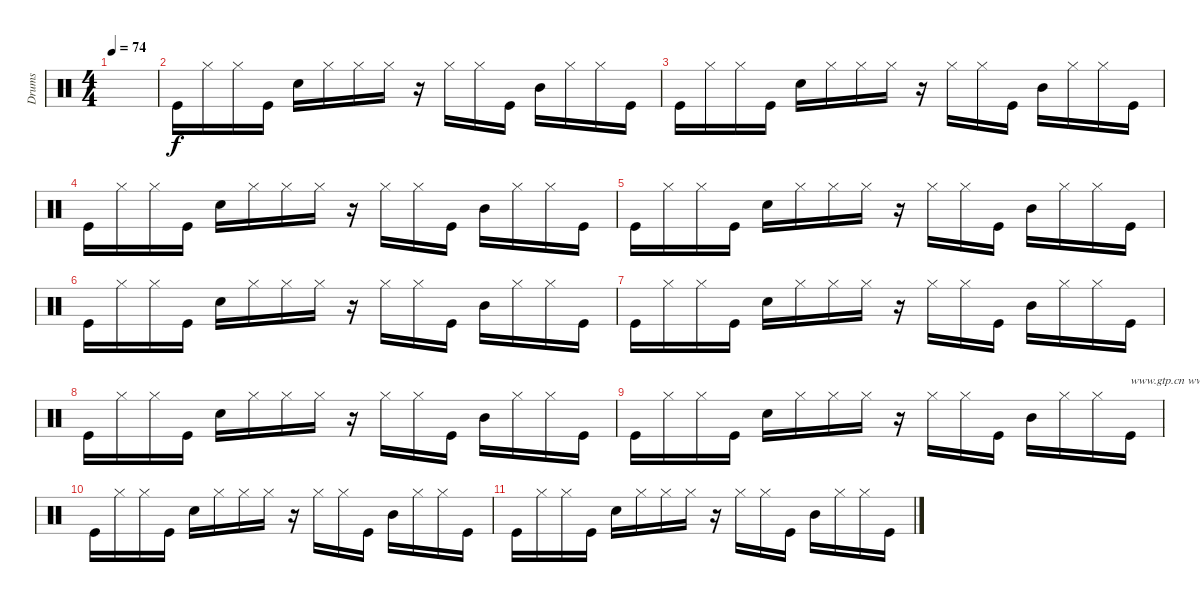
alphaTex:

\track ("Drums" "Drums") {instrument percussion}
\staff {score}
\articulation defaults
\ts (4 4)
\tempo 74
\clef neutral
\ks c
|
"Kick (hit)".16 "Hi-Hat (closed)".16 "Hi-Hat (closed)".16 "Kick (hit)".16 "Snare (hit) 2".16 "Hi-Hat (closed)".16 "Hi-Hat (closed)".16 "Hi-Hat (closed)".16 r.16 "Hi-Hat (closed)".16 "Hi-Hat (closed)".16 "Kick (hit)".16 "Mid Tom (hit)".16 "Hi-Hat (closed)".16 "Hi-Hat (closed)".16 "Kick (hit)".16 |
"Kick (hit)".16 "Hi-Hat (closed)".16 "Hi-Hat (closed)".16 "Kick (hit)".16 "Snare (hit) 2".16 "Hi-Hat (closed)".16 "Hi-Hat (closed)".16 "Hi-Hat (closed)".16 r.16 "Hi-Hat (closed)".16 "Hi-Hat (closed)".16 "Kick (hit)".16 "Mid Tom (hit)".16 "Hi-Hat (closed)".16 "Hi-Hat (closed)".16 "Kick (hit)".16 |
"Kick (hit)".16 "Hi-Hat (closed)".16 "Hi-Hat (closed)".16 "Kick (hit)".16 "Snare (hit) 2".16 "Hi-Hat (closed)".16 "Hi-Hat (closed)".16 "Hi-Hat (closed)".16 r.16 "Hi-Hat (closed)".16 "Hi-Hat (closed)".16 "Kick (hit)".16 "Mid Tom (hit)".16 "Hi-Hat (closed)".16 "Hi-Hat (closed)".16 "Kick (hit)".16 |
"Kick (hit)".16 "Hi-Hat (closed)".16 "Hi-Hat (closed)".16 "Kick (hit)".16 "Snare (hit) 2".16 "Hi-Hat (closed)".16 "Hi-Hat (closed)".16 "Hi-Hat (closed)".16 r.16 "Hi-Hat (closed)".16 "Hi-Hat (closed)".16 "Kick (hit)".16 "Mid Tom (hit)".16 "Hi-Hat (closed)".16 "Hi-Hat (closed)".16 "Kick (hit)".16 |
"Kick (hit)".16 "Hi-Hat (closed)".16 "Hi-Hat (closed)".16 "Kick (hit)".16 "Snare (hit) 2".16 "Hi-Hat (closed)".16 "Hi-Hat (closed)".16 "Hi-Hat (closed)".16 r.16 "Hi-Hat (closed)".16 "Hi-Hat (closed)".16 "Kick (hit)".16 "Mid Tom (hit)".16 "Hi-Hat (closed)".16 "Hi-Hat (closed)".16 "Kick (hit)".16 |
"Kick (hit)".16 "Hi-Hat (closed)".16 "Hi-Hat (closed)".16 "Kick (hit)".16 "Snare (hit) 2".16 "Hi-Hat (closed)".16 "Hi-Hat (closed)".16 "Hi-Hat (closed)".16 r.16 "Hi-Hat (closed)".16 "Hi-Hat (closed)".16 "Kick (hit)".16 "Mid Tom (hit)".16 "Hi-Hat (closed)".16 "Hi-Hat (closed)".16 "Kick (hit)".16 |
"Kick (hit)".16 "Hi-Hat (closed)".16 "Hi-Hat (closed)".16 "Kick (hit)".16 "Snare (hit) 2".16 "Hi-Hat (closed)".16 "Hi-Hat (closed)".16 "Hi-Hat (closed)".16 r.16 "Hi-Hat (closed)".16 "Hi-Hat (closed)".16 "Kick (hit)".16 "Mid Tom (hit)".16 "Hi-Hat (closed)".16 "Hi-Hat (closed)".16 "Kick (hit)".16 |
"Kick (hit)".16 "Hi-Hat (closed)".16 "Hi-Hat (closed)".16 "Kick (hit)".16 "Snare (hit) 2".16 "Hi-Hat (closed)".16 "Hi-Hat (closed)".16 "Hi-Hat (closed)".16 r.16 "Hi-Hat (closed)".16 "Hi-Hat (closed)".16 "Kick (hit)".16 "Mid Tom (hit)".16 "Hi-Hat (closed)".16 "Hi-Hat (closed)".16 "Kick (hit)".16{txt "www.gtp.cn www.51gtp.com联合为您提供优秀的GTP!"} |
"Kick (hit)".16 "Hi-Hat (closed)".16 "Hi-Hat (closed)".16 "Kick (hit)".16 "Snare (hit) 2".16 "Hi-Hat (closed)".16 "Hi-Hat (closed)".16 "Hi-Hat (closed)".16 r.16 "Hi-Hat (closed)".16 "Hi-Hat (closed)".16 "Kick (hit)".16 "Mid Tom (hit)".16 "Hi-Hat (closed)".16 "Hi-Hat (closed)".16 "Kick (hit)".16 |
"Kick (hit)".16 "Hi-Hat (closed)".16 "Hi-Hat (closed)".16 "Kick (hit)".16 "Snare (hit) 2".16 "Hi-Hat (closed)".16 "Hi-Hat (closed)".16 "Hi-Hat (closed)".16 r.16 "Hi-Hat (closed)".16 "Hi-Hat (closed)".16 "Kick (hit)".16 "Mid Tom (hit)".16 "Hi-Hat (closed)".16 "Hi-Hat (closed)".16 "Kick (hit)".16
